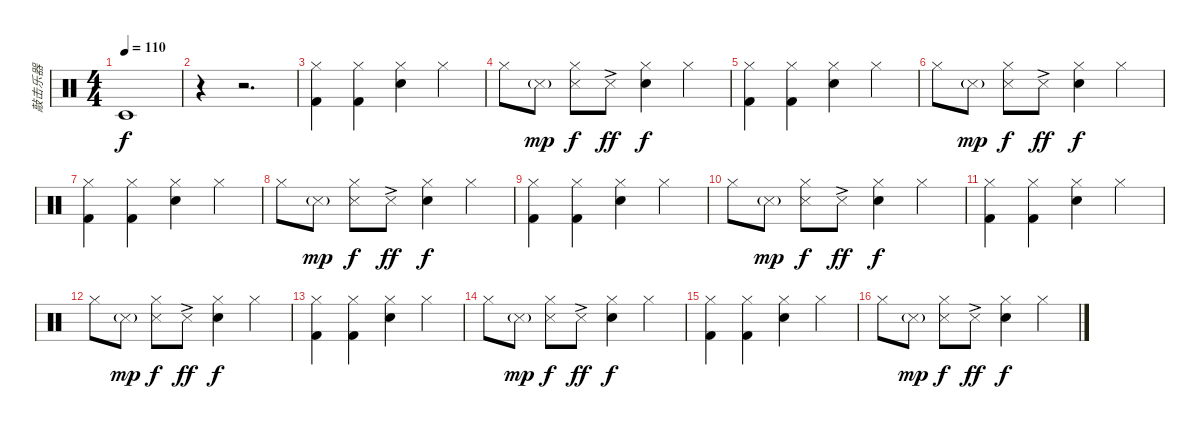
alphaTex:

\track ("敲击乐器" "敲击乐器") {instrument percussion}
\staff {score}
\articulation defaults
\ts (4 4)
\tempo 110
\clef neutral
\ks c "Timbale low (hit)".1{dy f}
|
r.4 r.2{d} |
("Kick (hit) 2" "Hi-Hat (closed)").4 ("Kick (hit) 2" "Hi-Hat (closed)").4 ("Snare (hit) 2" "Hi-Hat (closed)").4 "Hi-Hat (closed)".4 |
"Hi-Hat (closed)".8 "Metronome (hit)"{g}.8{dy mp} ("Metronome (hit)" "Hi-Hat (closed)").8{dy f} "Metronome (hit)"{ac}.8{dy ff} ("Snare (hit) 2" "Hi-Hat (closed)").4{dy f} "Hi-Hat (closed)".4 |
("Kick (hit) 2" "Hi-Hat (closed)").4 ("Kick (hit) 2" "Hi-Hat (closed)").4 ("Snare (hit) 2" "Hi-Hat (closed)").4 "Hi-Hat (closed)".4 |
"Hi-Hat (closed)".8 "Metronome (hit)"{g}.8{dy mp} ("Metronome (hit)" "Hi-Hat (closed)").8{dy f} "Metronome (hit)"{ac}.8{dy ff} ("Snare (hit) 2" "Hi-Hat (closed)").4{dy f} "Hi-Hat (closed)".4 |
("Kick (hit) 2" "Hi-Hat (closed)").4 ("Kick (hit) 2" "Hi-Hat (closed)").4 ("Snare (hit) 2" "Hi-Hat (closed)").4 "Hi-Hat (closed)".4 |
"Hi-Hat (closed)".8 "Metronome (hit)"{g}.8{dy mp} ("Metronome (hit)" "Hi-Hat (closed)").8{dy f} "Metronome (hit)"{ac}.8{dy ff} ("Snare (hit) 2" "Hi-Hat (closed)").4{dy f} "Hi-Hat (closed)".4 |
("Kick (hit) 2" "Hi-Hat (closed)").4 ("Kick (hit) 2" "Hi-Hat (closed)").4 ("Snare (hit) 2" "Hi-Hat (closed)").4 "Hi-Hat (closed)".4 |
"Hi-Hat (closed)".8 "Metronome (hit)"{g}.8{dy mp} ("Metronome (hit)" "Hi-Hat (closed)").8{dy f} "Metronome (hit)"{ac}.8{dy ff} ("Snare (hit) 2" "Hi-Hat (closed)").4{dy f} "Hi-Hat (closed)".4 |
("Kick (hit) 2" "Hi-Hat (closed)").4 ("Kick (hit) 2" "Hi-Hat (closed)").4 ("Snare (hit) 2" "Hi-Hat (closed)").4 "Hi-Hat (closed)".4 |
"Hi-Hat (closed)".8 "Metronome (hit)"{g}.8{dy mp} ("Metronome (hit)" "Hi-Hat (closed)").8{dy f} "Metronome (hit)"{ac}.8{dy ff} ("Snare (hit) 2" "Hi-Hat (closed)").4{dy f} "Hi-Hat (closed)".4 |
("Kick (hit) 2" "Hi-Hat (closed)").4 ("Kick (hit) 2" "Hi-Hat (closed)").4 ("Snare (hit) 2" "Hi-Hat (closed)").4 "Hi-Hat (closed)".4 |
"Hi-Hat (closed)".8 "Metronome (hit)"{g}.8{dy mp} ("Metronome (hit)" "Hi-Hat (closed)").8{dy f} "Metronome (hit)"{ac}.8{dy ff} ("Snare (hit) 2" "Hi-Hat (closed)").4{dy f} "Hi-Hat (closed)".4 |
("Kick (hit) 2" "Hi-Hat (closed)").4 ("Kick (hit) 2" "Hi-Hat (closed)").4 ("Snare (hit) 2" "Hi-Hat (closed)").4 "Hi-Hat (closed)".4 |
"Hi-Hat (closed)".8 "Metronome (hit)"{g}.8{dy mp} ("Metronome (hit)" "Hi-Hat (closed)").8{dy f} "Metronome (hit)"{ac}.8{dy ff} ("Snare (hit) 2" "Hi-Hat (closed)").4{dy f} "Hi-Hat (closed)".4
